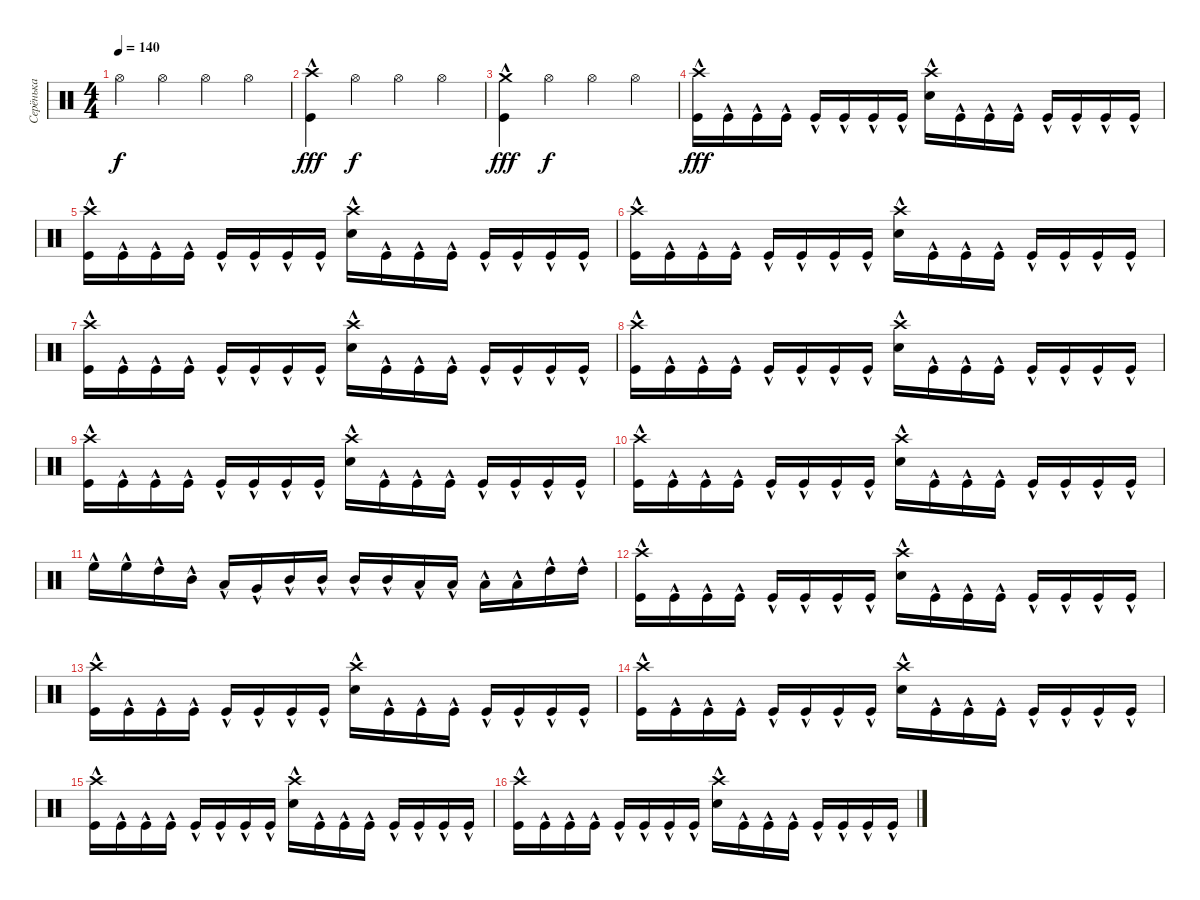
\track ("Серёнька" "Серёнька") {instrument percussion}
\staff {score}
\articulation defaults
\ts (4 4)
\tempo 140
\clef neutral
\ks c "Hi-Hat (open)".4{dy f} "Hi-Hat (open)".4 "Hi-Hat (open)".4 "Hi-Hat (open)".4
|
("Crash high (hit)"{hac} "Kick (hit)"{hac}).4{dy fff} "Hi-Hat (open)".4{dy f} "Hi-Hat (open)".4 "Hi-Hat (open)".4 |
("Crash medium (hit)" "Kick (hit)"{hac}).4{dy fff} "Hi-Hat (open)".4{dy f} "Hi-Hat (open)".4 "Hi-Hat (open)".4 |
("Crash high (hit)" "Kick (hit)"{hac}).16{dy fff volume 0} "Kick (hit)"{hac}.16 "Kick (hit)"{hac}.16 "Kick (hit)"{hac}.16 "Kick (hit)"{hac}.16 "Kick (hit)"{hac}.16 "Kick (hit)"{hac}.16 "Kick (hit)"{hac}.16 ("Crash high (hit)" "Snare (hit) 2"{hac}).16 "Kick (hit)"{hac}.16 "Kick (hit)"{hac}.16 "Kick (hit)"{hac}.16 "Kick (hit)"{hac}.16 "Kick (hit)"{hac}.16 "Kick (hit)"{hac}.16 "Kick (hit)"{hac}.16 |
("Crash high (hit)" "Kick (hit)"{hac}).16 "Kick (hit)"{hac}.16 "Kick (hit)"{hac}.16 "Kick (hit)"{hac}.16 "Kick (hit)"{hac}.16 "Kick (hit)"{hac}.16 "Kick (hit)"{hac}.16 "Kick (hit)"{hac}.16 ("Crash high (hit)" "Snare (hit) 2"{hac}).16 "Kick (hit)"{hac}.16 "Kick (hit)"{hac}.16 "Kick (hit)"{hac}.16 "Kick (hit)"{hac}.16 "Kick (hit)"{hac}.16 "Kick (hit)"{hac}.16 "Kick (hit)"{hac}.16 |
("Crash high (hit)" "Kick (hit)"{hac}).16 "Kick (hit)"{hac}.16 "Kick (hit)"{hac}.16 "Kick (hit)"{hac}.16 "Kick (hit)"{hac}.16 "Kick (hit)"{hac}.16 "Kick (hit)"{hac}.16 "Kick (hit)"{hac}.16 ("Crash high (hit)" "Snare (hit) 2"{hac}).16 "Kick (hit)"{hac}.16 "Kick (hit)"{hac}.16 "Kick (hit)"{hac}.16 "Kick (hit)"{hac}.16 "Kick (hit)"{hac}.16 "Kick (hit)"{hac}.16 "Kick (hit)"{hac}.16 |
("Crash high (hit)" "Kick (hit)"{hac}).16 "Kick (hit)"{hac}.16 "Kick (hit)"{hac}.16 "Kick (hit)"{hac}.16 "Kick (hit)"{hac}.16 "Kick (hit)"{hac}.16 "Kick (hit)"{hac}.16 "Kick (hit)"{hac}.16 ("Crash high (hit)" "Snare (hit) 2"{hac}).16 "Kick (hit)"{hac}.16 "Kick (hit)"{hac}.16 "Kick (hit)"{hac}.16 "Kick (hit)"{hac}.16 "Kick (hit)"{hac}.16 "Kick (hit)"{hac}.16 "Kick (hit)"{hac}.16 |
("Crash high (hit)" "Kick (hit)"{hac}).16 "Kick (hit)"{hac}.16 "Kick (hit)"{hac}.16 "Kick (hit)"{hac}.16 "Kick (hit)"{hac}.16 "Kick (hit)"{hac}.16 "Kick (hit)"{hac}.16 "Kick (hit)"{hac}.16 ("Crash high (hit)" "Snare (hit) 2"{hac}).16 "Kick (hit)"{hac}.16 "Kick (hit)"{hac}.16 "Kick (hit)"{hac}.16 "Kick (hit)"{hac}.16 "Kick (hit)"{hac}.16 "Kick (hit)"{hac}.16 "Kick (hit)"{hac}.16 |
("Crash high (hit)" "Kick (hit)"{hac}).16 "Kick (hit)"{hac}.16 "Kick (hit)"{hac}.16 "Kick (hit)"{hac}.16 "Kick (hit)"{hac}.16 "Kick (hit)"{hac}.16 "Kick (hit)"{hac}.16 "Kick (hit)"{hac}.16 ("Crash high (hit)" "Snare (hit) 2"{hac}).16 "Kick (hit)"{hac}.16 "Kick (hit)"{hac}.16 "Kick (hit)"{hac}.16 "Kick (hit)"{hac}.16 "Kick (hit)"{hac}.16 "Kick (hit)"{hac}.16 "Kick (hit)"{hac}.16 |
("Crash high (hit)" "Kick (hit)"{hac}).16 "Kick (hit)"{hac}.16 "Kick (hit)"{hac}.16 "Kick (hit)"{hac}.16 "Kick (hit)"{hac}.16 "Kick (hit)"{hac}.16 "Kick (hit)"{hac}.16 "Kick (hit)"{hac}.16 ("Crash high (hit)" "Snare (hit) 2"{hac}).16 "Kick (hit)"{hac}.16 "Kick (hit)"{hac}.16 "Kick (hit)"{hac}.16 "Kick (hit)"{hac}.16 "Kick (hit)"{hac}.16 "Kick (hit)"{hac}.16 "Kick (hit)"{hac}.16 |
"High Floor Tom (hit)"{hac}.16 "High Floor Tom (hit)"{hac}.16 "High Tom (hit)"{hac}.16 "Mid Tom (hit)"{hac}.16 "Low Tom (hit)"{hac}.16 "Very Low Tom (hit)"{hac}.16 "Mid Tom (hit)"{hac}.16 "Mid Tom (hit)"{hac}.16 "Mid Tom (hit)"{hac}.16 "Mid Tom (hit)"{hac}.16 "Low Tom (hit)"{hac}.16 "Low Tom (hit)"{hac}.16 "Low Tom (hit)"{hac}.16 "Low Tom (hit)"{hac}.16 "High Tom (hit)"{hac}.16 "High Tom (hit)"{hac}.16 |
("Crash high (hit)" "Kick (hit)"{hac}).16 "Kick (hit)"{hac}.16 "Kick (hit)"{hac}.16 "Kick (hit)"{hac}.16 "Kick (hit)"{hac}.16 "Kick (hit)"{hac}.16 "Kick (hit)"{hac}.16 "Kick (hit)"{hac}.16 ("Crash high (hit)" "Snare (hit) 2"{hac}).16 "Kick (hit)"{hac}.16 "Kick (hit)"{hac}.16 "Kick (hit)"{hac}.16 "Kick (hit)"{hac}.16 "Kick (hit)"{hac}.16 "Kick (hit)"{hac}.16 "Kick (hit)"{hac}.16 |
("Crash high (hit)" "Kick (hit)"{hac}).16 "Kick (hit)"{hac}.16 "Kick (hit)"{hac}.16 "Kick (hit)"{hac}.16 "Kick (hit)"{hac}.16 "Kick (hit)"{hac}.16 "Kick (hit)"{hac}.16 "Kick (hit)"{hac}.16 ("Crash high (hit)" "Snare (hit) 2"{hac}).16 "Kick (hit)"{hac}.16 "Kick (hit)"{hac}.16 "Kick (hit)"{hac}.16 "Kick (hit)"{hac}.16 "Kick (hit)"{hac}.16 "Kick (hit)"{hac}.16 "Kick (hit)"{hac}.16 |
("Crash high (hit)" "Kick (hit)"{hac}).16 "Kick (hit)"{hac}.16 "Kick (hit)"{hac}.16 "Kick (hit)"{hac}.16 "Kick (hit)"{hac}.16 "Kick (hit)"{hac}.16 "Kick (hit)"{hac}.16 "Kick (hit)"{hac}.16 ("Crash high (hit)" "Snare (hit) 2"{hac}).16 "Kick (hit)"{hac}.16 "Kick (hit)"{hac}.16 "Kick (hit)"{hac}.16 "Kick (hit)"{hac}.16 "Kick (hit)"{hac}.16 "Kick (hit)"{hac}.16 "Kick (hit)"{hac}.16 |
("Crash high (hit)" "Kick (hit)"{hac}).16 "Kick (hit)"{hac}.16 "Kick (hit)"{hac}.16 "Kick (hit)"{hac}.16 "Kick (hit)"{hac}.16 "Kick (hit)"{hac}.16 "Kick (hit)"{hac}.16 "Kick (hit)"{hac}.16 ("Crash high (hit)" "Snare (hit) 2"{hac}).16 "Kick (hit)"{hac}.16 "Kick (hit)"{hac}.16 "Kick (hit)"{hac}.16 "Kick (hit)"{hac}.16 "Kick (hit)"{hac}.16 "Kick (hit)"{hac}.16 "Kick (hit)"{hac}.16 |
("Crash high (hit)" "Kick (hit)"{hac}).16 "Kick (hit)"{hac}.16 "Kick (hit)"{hac}.16 "Kick (hit)"{hac}.16 "Kick (hit)"{hac}.16 "Kick (hit)"{hac}.16 "Kick (hit)"{hac}.16 "Kick (hit)"{hac}.16 ("Crash high (hit)" "Snare (hit) 2"{hac}).16 "Kick (hit)"{hac}.16 "Kick (hit)"{hac}.16 "Kick (hit)"{hac}.16 "Kick (hit)"{hac}.16 "Kick (hit)"{hac}.16 "Kick (hit)"{hac}.16 "Kick (hit)"{hac}.16
